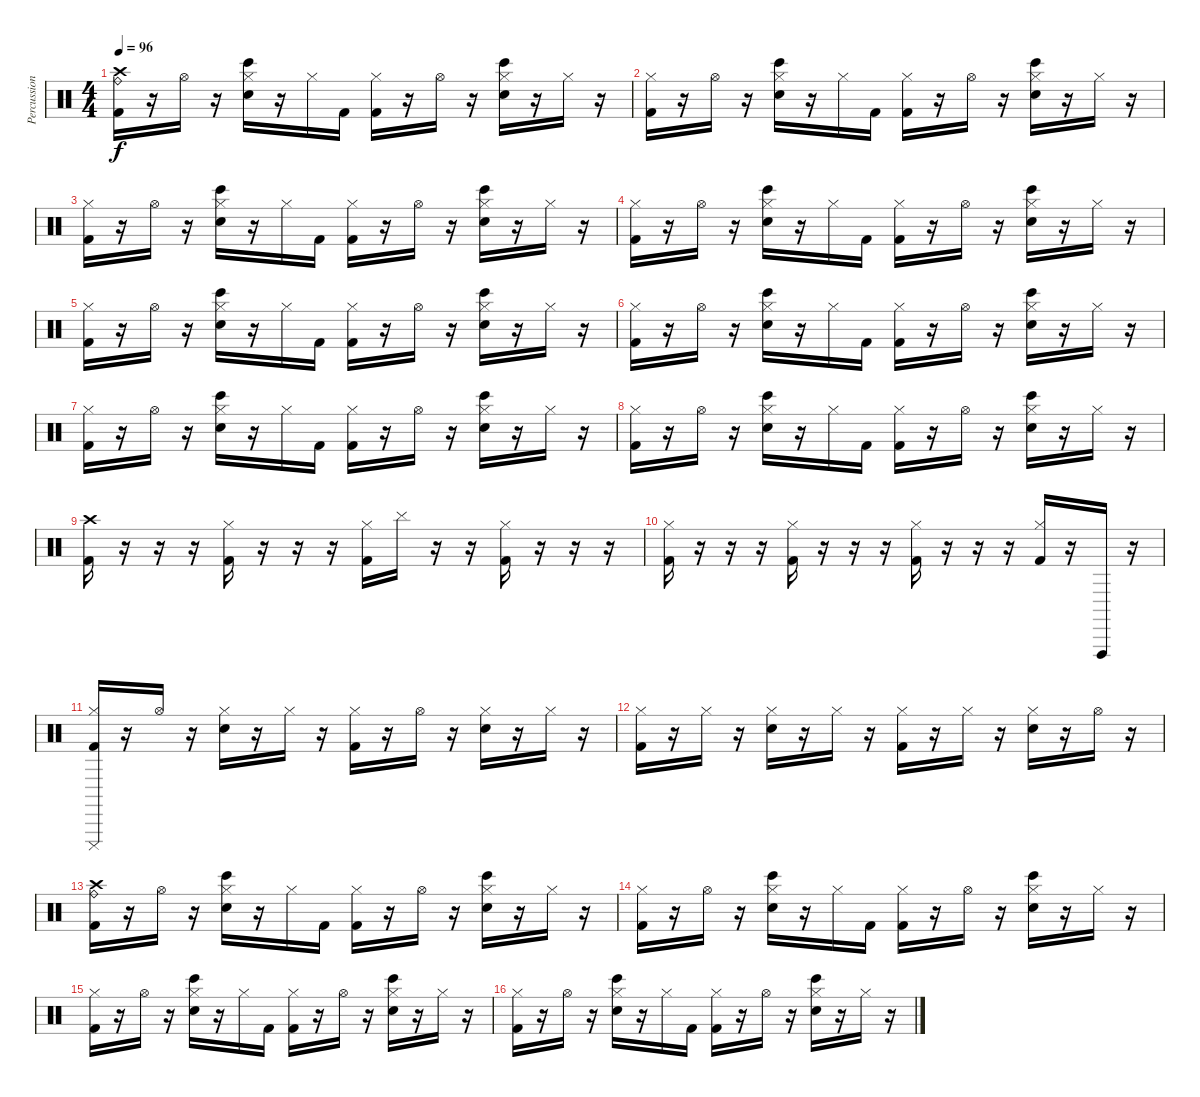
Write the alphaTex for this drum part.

\track ("Percussion" "Percussion") {instrument percussion}
\staff {score}
\articulation defaults
\ts (4 4)
\tempo 96
\clef neutral
\ks c
("Crash high (hit)" "Ride (bell)" "Kick (hit) 2").16{dy f} r.16 "Hi-Hat (open)".16 r.16 ("Hi-Hat (closed)" "Bongo High (hit)" "Snare (hit) 2").16 r.16 "Hi-Hat (closed)".16 "Kick (hit) 2".16 ("Hi-Hat (closed)" "Kick (hit) 2").16 r.16 "Hi-Hat (open)".16 r.16 ("Hi-Hat (closed)" "Bongo High (hit)" "Snare (hit) 2").16 r.16 "Hi-Hat (closed)".16 r.16 |
("Hi-Hat (closed)" "Kick (hit) 2").16 r.16 "Hi-Hat (open)".16 r.16 ("Hi-Hat (closed)" "Bongo High (hit)" "Snare (hit) 2").16 r.16 "Hi-Hat (closed)".16 "Kick (hit) 2".16 ("Hi-Hat (closed)" "Kick (hit) 2").16 r.16 "Hi-Hat (open)".16 r.16 ("Hi-Hat (closed)" "Bongo High (hit)" "Snare (hit) 2").16 r.16 "Hi-Hat (closed)".16 r.16 |
("Hi-Hat (closed)" "Kick (hit) 2").16 r.16 "Hi-Hat (open)".16 r.16 ("Hi-Hat (closed)" "Bongo High (hit)" "Snare (hit) 2").16 r.16 "Hi-Hat (closed)".16 "Kick (hit) 2".16 ("Hi-Hat (closed)" "Kick (hit) 2").16 r.16 "Hi-Hat (open)".16 r.16 ("Hi-Hat (closed)" "Bongo High (hit)" "Snare (hit) 2").16 r.16 "Hi-Hat (closed)".16 r.16 |
("Hi-Hat (closed)" "Kick (hit) 2").16 r.16 "Hi-Hat (open)".16 r.16 ("Hi-Hat (closed)" "Bongo High (hit)" "Snare (hit) 2").16 r.16 "Hi-Hat (closed)".16 "Kick (hit) 2".16 ("Hi-Hat (closed)" "Kick (hit) 2").16 r.16 "Hi-Hat (open)".16 r.16 ("Hi-Hat (closed)" "Bongo High (hit)" "Snare (hit) 2").16 r.16 "Hi-Hat (closed)".16 r.16 |
("Hi-Hat (closed)" "Kick (hit) 2").16 r.16 "Hi-Hat (open)".16 r.16 ("Hi-Hat (closed)" "Bongo High (hit)" "Snare (hit) 2").16 r.16 "Hi-Hat (closed)".16 "Kick (hit) 2".16 ("Hi-Hat (closed)" "Kick (hit) 2").16 r.16 "Hi-Hat (open)".16 r.16 ("Hi-Hat (closed)" "Bongo High (hit)" "Snare (hit) 2").16 r.16 "Hi-Hat (closed)".16 r.16 |
("Hi-Hat (closed)" "Kick (hit) 2").16 r.16 "Hi-Hat (open)".16 r.16 ("Hi-Hat (closed)" "Bongo High (hit)" "Snare (hit) 2").16 r.16 "Hi-Hat (closed)".16 "Kick (hit) 2".16 ("Hi-Hat (closed)" "Kick (hit) 2").16 r.16 "Hi-Hat (open)".16 r.16 ("Hi-Hat (closed)" "Bongo High (hit)" "Snare (hit) 2").16 r.16 "Hi-Hat (closed)".16 r.16 |
("Hi-Hat (closed)" "Kick (hit) 2").16 r.16 "Hi-Hat (open)".16 r.16 ("Hi-Hat (closed)" "Bongo High (hit)" "Snare (hit) 2").16 r.16 "Hi-Hat (closed)".16 "Kick (hit) 2".16 ("Hi-Hat (closed)" "Kick (hit) 2").16 r.16 "Hi-Hat (open)".16 r.16 ("Hi-Hat (closed)" "Bongo High (hit)" "Snare (hit) 2").16 r.16 "Hi-Hat (closed)".16 r.16 |
("Hi-Hat (closed)" "Kick (hit) 2").16 r.16 "Hi-Hat (open)".16 r.16 ("Hi-Hat (closed)" "Bongo High (hit)" "Snare (hit) 2").16 r.16 "Hi-Hat (closed)".16 "Kick (hit) 2".16 ("Hi-Hat (closed)" "Kick (hit) 2").16 r.16 "Hi-Hat (open)".16 r.16 ("Hi-Hat (closed)" "Bongo High (hit)" "Snare (hit) 2").16 r.16 "Hi-Hat (closed)".16 r.16 |
("Crash high (hit)" "Kick (hit) 2").16 r.16 r.16 r.16 ("Hi-Hat (closed)" "Kick (hit) 2").16 r.16 r.16 r.16 ("Hi-Hat (closed)" "Kick (hit) 2").16 "Cymbal (hit)".16 r.16 r.16 ("Hi-Hat (closed)" "Kick (hit) 2").16 r.16 r.16 r.16 |
("Hi-Hat (closed)" "Kick (hit) 2").16 r.16 r.16 r.16 ("Hi-Hat (closed)" "Kick (hit) 2").16 r.16 r.16 r.16 ("Hi-Hat (closed)" "Kick (hit) 2").16 r.16 r.16 r.16 ("Hi-Hat (closed)" "Kick (hit) 2").16 r.16 "Vibraslap (hit)".16 r.16 |
("Hi-Hat (closed)" "Cuica (mute)" "Kick (hit) 2").16 r.16 "Hi-Hat (open)".16 r.16 ("Hi-Hat (closed)" "Snare (hit) 2").16 r.16 "Hi-Hat (closed)".16 r.16 ("Hi-Hat (closed)" "Kick (hit) 2").16 r.16 "Hi-Hat (open)".16 r.16 ("Hi-Hat (closed)" "Snare (hit) 2").16 r.16 "Hi-Hat (closed)".16 r.16 |
("Hi-Hat (closed)" "Kick (hit) 2").16 r.16 "Hi-Hat (closed)".16 r.16 ("Hi-Hat (closed)" "Snare (hit) 2").16 r.16 "Hi-Hat (closed)".16 r.16 ("Hi-Hat (closed)" "Kick (hit) 2").16 r.16 "Hi-Hat (closed)".16 r.16 ("Hi-Hat (closed)" "Snare (hit) 2").16 r.16 "Hi-Hat (open)".16 r.16 |
("Crash high (hit)" "Ride (bell)" "Kick (hit) 2").16 r.16 "Hi-Hat (open)".16 r.16 ("Hi-Hat (closed)" "Bongo High (hit)" "Snare (hit) 2").16 r.16 "Hi-Hat (closed)".16 "Kick (hit) 2".16 ("Hi-Hat (closed)" "Kick (hit) 2").16 r.16 "Hi-Hat (open)".16 r.16 ("Hi-Hat (closed)" "Bongo High (hit)" "Snare (hit) 2").16 r.16 "Hi-Hat (closed)".16 r.16 |
("Hi-Hat (closed)" "Kick (hit) 2").16 r.16 "Hi-Hat (open)".16 r.16 ("Hi-Hat (closed)" "Bongo High (hit)" "Snare (hit) 2").16 r.16 "Hi-Hat (closed)".16 "Kick (hit) 2".16 ("Hi-Hat (closed)" "Kick (hit) 2").16 r.16 "Hi-Hat (open)".16 r.16 ("Hi-Hat (closed)" "Bongo High (hit)" "Snare (hit) 2").16 r.16 "Hi-Hat (closed)".16 r.16 |
("Hi-Hat (closed)" "Kick (hit) 2").16 r.16 "Hi-Hat (open)".16 r.16 ("Hi-Hat (closed)" "Bongo High (hit)" "Snare (hit) 2").16 r.16 "Hi-Hat (closed)".16 "Kick (hit) 2".16 ("Hi-Hat (closed)" "Kick (hit) 2").16 r.16 "Hi-Hat (open)".16 r.16 ("Hi-Hat (closed)" "Bongo High (hit)" "Snare (hit) 2").16 r.16 "Hi-Hat (closed)".16 r.16 |
("Hi-Hat (closed)" "Kick (hit) 2").16 r.16 "Hi-Hat (open)".16 r.16 ("Hi-Hat (closed)" "Bongo High (hit)" "Snare (hit) 2").16 r.16 "Hi-Hat (closed)".16 "Kick (hit) 2".16 ("Hi-Hat (closed)" "Kick (hit) 2").16 r.16 "Hi-Hat (open)".16 r.16 ("Hi-Hat (closed)" "Bongo High (hit)" "Snare (hit) 2").16 r.16 "Hi-Hat (closed)".16 r.16
